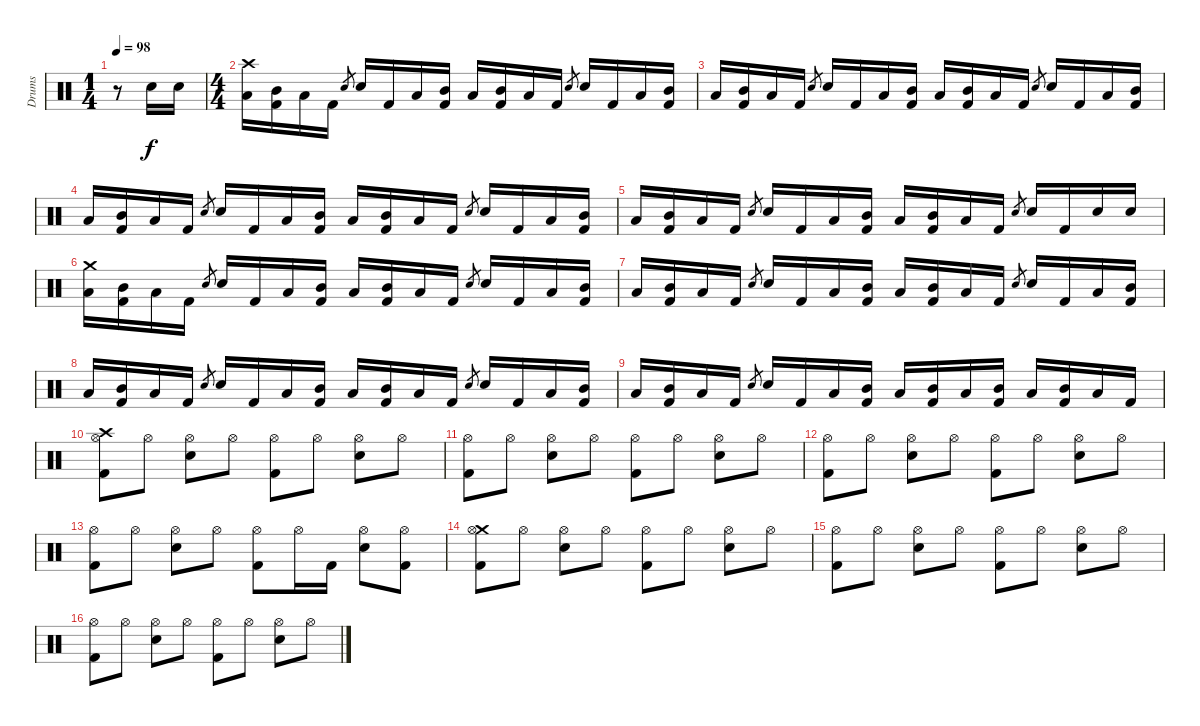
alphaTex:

\track ("Drums" "Drums") {instrument percussion}
\staff {score}
\articulation defaults
\ts (1 4)
\tempo 98
\clef neutral
\ks c
r.8{dy f} "Snare (hit) 2".16 "Snare (hit) 2".16 |
\ts (4 4)
("Crash high (hit)" "Low Tom (hit)").16 ("Kick (hit) 2" "Mid Tom (hit)").16 "Low Tom (hit)".16 "Kick (hit) 2".16 "Snare (hit) 2".8{gr} "Snare (hit) 2".16 "Kick (hit) 2".16 "Low Tom (hit)".16 ("Kick (hit) 2" "Mid Tom (hit)").16 "Low Tom (hit)".16 ("Kick (hit) 2" "Mid Tom (hit)").16 "Low Tom (hit)".16 "Kick (hit) 2".16 "Snare (hit) 2".8{gr} "Snare (hit) 2".16 "Kick (hit) 2".16 "Low Tom (hit)".16 ("Kick (hit) 2" "Mid Tom (hit)").16 |
"Low Tom (hit)".16 ("Kick (hit) 2" "Mid Tom (hit)").16 "Low Tom (hit)".16 "Kick (hit) 2".16 "Snare (hit) 2".8{gr} "Snare (hit) 2".16 "Kick (hit) 2".16 "Low Tom (hit)".16 ("Kick (hit) 2" "Mid Tom (hit)").16 "Low Tom (hit)".16 ("Kick (hit) 2" "Mid Tom (hit)").16 "Low Tom (hit)".16 "Kick (hit) 2".16 "Snare (hit) 2".8{gr} "Snare (hit) 2".16 "Kick (hit) 2".16 "Low Tom (hit)".16 ("Kick (hit) 2" "Mid Tom (hit)").16 |
"Low Tom (hit)".16 ("Kick (hit) 2" "Mid Tom (hit)").16 "Low Tom (hit)".16 "Kick (hit) 2".16 "Snare (hit) 2".8{gr} "Snare (hit) 2".16 "Kick (hit) 2".16 "Low Tom (hit)".16 ("Kick (hit) 2" "Mid Tom (hit)").16 "Low Tom (hit)".16 ("Kick (hit) 2" "Mid Tom (hit)").16 "Low Tom (hit)".16 "Kick (hit) 2".16 "Snare (hit) 2".8{gr} "Snare (hit) 2".16 "Kick (hit) 2".16 "Low Tom (hit)".16 ("Kick (hit) 2" "Mid Tom (hit)").16 |
"Low Tom (hit)".16 ("Kick (hit) 2" "Mid Tom (hit)").16 "Low Tom (hit)".16 "Kick (hit) 2".16 "Snare (hit) 2".8{gr} "Snare (hit) 2".16 "Kick (hit) 2".16 "Low Tom (hit)".16 ("Kick (hit) 2" "Mid Tom (hit)").16 "Low Tom (hit)".16 ("Kick (hit) 2" "Mid Tom (hit)").16 "Low Tom (hit)".16 "Kick (hit) 2".16 "Snare (hit) 2".8{gr} "Snare (hit) 2".16 "Kick (hit) 2".16 "Snare (hit) 2".16 "Snare (hit) 2".16 |
("Crash medium (hit)" "Low Tom (hit)").16 ("Kick (hit) 2" "Mid Tom (hit)").16 "Low Tom (hit)".16 "Kick (hit) 2".16 "Snare (hit) 2".8{gr} "Snare (hit) 2".16 "Kick (hit) 2".16 "Low Tom (hit)".16 ("Kick (hit) 2" "Mid Tom (hit)").16 "Low Tom (hit)".16 ("Kick (hit) 2" "Mid Tom (hit)").16 "Low Tom (hit)".16 "Kick (hit) 2".16 "Snare (hit) 2".8{gr} "Snare (hit) 2".16 "Kick (hit) 2".16 "Low Tom (hit)".16 ("Kick (hit) 2" "Mid Tom (hit)").16 |
"Low Tom (hit)".16 ("Kick (hit) 2" "Mid Tom (hit)").16 "Low Tom (hit)".16 "Kick (hit) 2".16 "Snare (hit) 2".8{gr} "Snare (hit) 2".16 "Kick (hit) 2".16 "Low Tom (hit)".16 ("Kick (hit) 2" "Mid Tom (hit)").16 "Low Tom (hit)".16 ("Kick (hit) 2" "Mid Tom (hit)").16 "Low Tom (hit)".16 "Kick (hit) 2".16 "Snare (hit) 2".8{gr} "Snare (hit) 2".16 "Kick (hit) 2".16 "Low Tom (hit)".16 ("Kick (hit) 2" "Mid Tom (hit)").16 |
"Low Tom (hit)".16 ("Kick (hit) 2" "Mid Tom (hit)").16 "Low Tom (hit)".16 "Kick (hit) 2".16 "Snare (hit) 2".8{gr} "Snare (hit) 2".16 "Kick (hit) 2".16 "Low Tom (hit)".16 ("Kick (hit) 2" "Mid Tom (hit)").16 "Low Tom (hit)".16 ("Kick (hit) 2" "Mid Tom (hit)").16 "Low Tom (hit)".16 "Kick (hit) 2".16 "Snare (hit) 2".8{gr} "Snare (hit) 2".16 "Kick (hit) 2".16 "Low Tom (hit)".16 ("Kick (hit) 2" "Mid Tom (hit)").16 |
"Low Tom (hit)".16 ("Kick (hit) 2" "Mid Tom (hit)").16 "Low Tom (hit)".16 "Kick (hit) 2".16 "Snare (hit) 2".8{gr} "Snare (hit) 2".16 "Kick (hit) 2".16 "Low Tom (hit)".16 ("Kick (hit) 2" "Mid Tom (hit)").16 "Low Tom (hit)".16 ("Kick (hit) 2" "Mid Tom (hit)").16 "Low Tom (hit)".16 ("Kick (hit) 2" "Mid Tom (hit)").16 "Low Tom (hit)".16 ("Kick (hit) 2" "Mid Tom (hit)").16 "Low Tom (hit)".16 "Kick (hit) 2".16 |
("Crash high (hit)" "Hi-Hat (open)" "Kick (hit) 2").8 "Hi-Hat (open)".8 ("Hi-Hat (open)" "Snare (hit) 2").8 "Hi-Hat (open)".8 ("Hi-Hat (open)" "Kick (hit) 2").8 "Hi-Hat (open)".8 ("Hi-Hat (open)" "Snare (hit) 2").8 "Hi-Hat (open)".8 |
("Hi-Hat (open)" "Kick (hit) 2").8 "Hi-Hat (open)".8 ("Hi-Hat (open)" "Snare (hit) 2").8 "Hi-Hat (open)".8 ("Hi-Hat (open)" "Kick (hit) 2").8 "Hi-Hat (open)".8 ("Hi-Hat (open)" "Snare (hit) 2").8 "Hi-Hat (open)".8 |
("Hi-Hat (open)" "Kick (hit) 2").8 "Hi-Hat (open)".8 ("Hi-Hat (open)" "Snare (hit) 2").8 "Hi-Hat (open)".8 ("Hi-Hat (open)" "Kick (hit) 2").8 "Hi-Hat (open)".8 ("Hi-Hat (open)" "Snare (hit) 2").8 "Hi-Hat (open)".8 |
("Hi-Hat (open)" "Kick (hit) 2").8 "Hi-Hat (open)".8 ("Hi-Hat (open)" "Snare (hit) 2").8 "Hi-Hat (open)".8 ("Hi-Hat (open)" "Kick (hit) 2").8 "Hi-Hat (open)".16 "Kick (hit) 2".16 ("Hi-Hat (open)" "Snare (hit) 2").8 ("Hi-Hat (open)" "Kick (hit) 2").8 |
("Crash medium (hit)" "Hi-Hat (open)" "Kick (hit) 2").8 "Hi-Hat (open)".8 ("Hi-Hat (open)" "Snare (hit) 2").8 "Hi-Hat (open)".8 ("Hi-Hat (open)" "Kick (hit) 2").8 "Hi-Hat (open)".8 ("Hi-Hat (open)" "Snare (hit) 2").8 "Hi-Hat (open)".8 |
("Hi-Hat (open)" "Kick (hit) 2").8 "Hi-Hat (open)".8 ("Hi-Hat (open)" "Snare (hit) 2").8 "Hi-Hat (open)".8 ("Hi-Hat (open)" "Kick (hit) 2").8 "Hi-Hat (open)".8 ("Hi-Hat (open)" "Snare (hit) 2").8 "Hi-Hat (open)".8 |
("Hi-Hat (open)" "Kick (hit) 2").8 "Hi-Hat (open)".8 ("Hi-Hat (open)" "Snare (hit) 2").8 "Hi-Hat (open)".8 ("Hi-Hat (open)" "Kick (hit) 2").8 "Hi-Hat (open)".8 ("Hi-Hat (open)" "Snare (hit) 2").8 "Hi-Hat (open)".8
